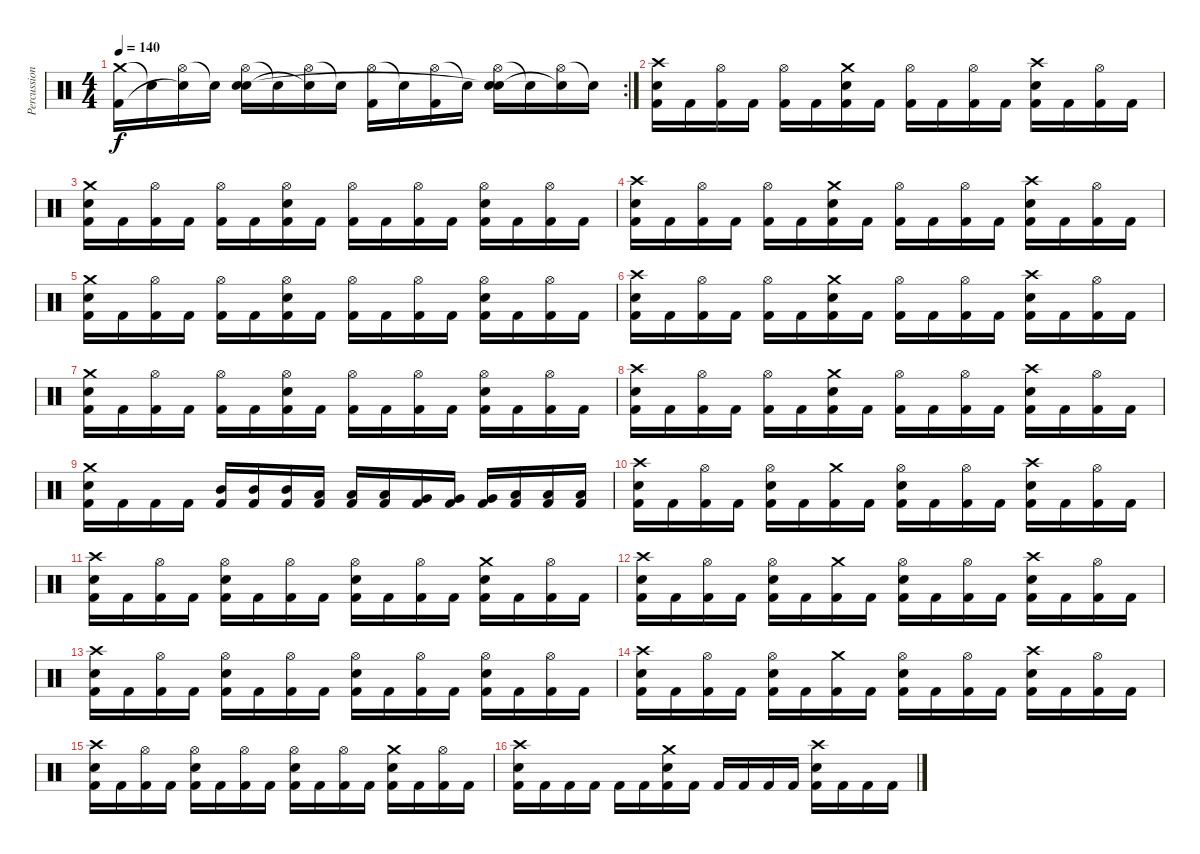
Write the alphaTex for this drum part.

\track ("Percussion" "Percussion") {instrument percussion}
\staff {score}
\articulation defaults
\rc 2
\ts (4 4)
\tempo 140
\clef neutral
\ks c
("Crash medium (hit)" "Kick (hit) 2").16{dy f} "Snare (hit)"{t}.16 ("Hi-Hat (open)" "Snare (hit)"{t}).16 "Snare (hit)"{t}.16 ("Hi-Hat (open)" "Snare (hit) 2" "Snare (hit)"{t}).16 "Snare (hit)"{t}.16 ("Hi-Hat (open)" "Snare (hit)"{t}).16 "Snare (hit)"{t}.16 ("Hi-Hat (open)" "Kick (hit) 2").16 "Snare (hit)"{t}.16 ("Hi-Hat (open)" "Kick (hit) 2").16 "Snare (hit)"{t}.16 ("Hi-Hat (open)" "Snare (hit) 2" "Snare (hit)"{t}).16 "Snare (hit)"{t}.16 ("Hi-Hat (open)" "Snare (hit)"{t}).16 "Snare (hit)"{t}.16 |
("Crash high (hit)" "Snare (hit) 2" "Kick (hit) 2").16 "Kick (hit) 2".16 ("Hi-Hat (open)" "Kick (hit) 2").16 "Kick (hit) 2".16 ("Hi-Hat (open)" "Kick (hit) 2").16 "Kick (hit) 2".16 ("Crash medium (hit)" "Snare (hit) 2" "Kick (hit) 2").16 "Kick (hit) 2".16 ("Hi-Hat (open)" "Kick (hit) 2").16 "Kick (hit) 2".16 ("Hi-Hat (open)" "Kick (hit) 2").16 "Kick (hit) 2".16 ("Crash high (hit)" "Snare (hit) 2" "Kick (hit) 2").16 "Kick (hit) 2".16 ("Hi-Hat (open)" "Kick (hit) 2").16 "Kick (hit) 2".16 |
("Crash medium (hit)" "Snare (hit) 2" "Kick (hit) 2").16 "Kick (hit) 2".16 ("Hi-Hat (open)" "Kick (hit) 2").16 "Kick (hit) 2".16 ("Hi-Hat (open)" "Kick (hit) 2").16 "Kick (hit) 2".16 ("Hi-Hat (open)" "Snare (hit) 2" "Kick (hit) 2").16 "Kick (hit) 2".16 ("Hi-Hat (open)" "Kick (hit) 2").16 "Kick (hit) 2".16 ("Hi-Hat (open)" "Kick (hit) 2").16 "Kick (hit) 2".16 ("Hi-Hat (open)" "Snare (hit) 2" "Kick (hit) 2").16 "Kick (hit) 2".16 ("Hi-Hat (open)" "Kick (hit) 2").16 "Kick (hit) 2".16 |
("Crash high (hit)" "Snare (hit) 2" "Kick (hit) 2").16 "Kick (hit) 2".16 ("Hi-Hat (open)" "Kick (hit) 2").16 "Kick (hit) 2".16 ("Hi-Hat (open)" "Kick (hit) 2").16 "Kick (hit) 2".16 ("Crash medium (hit)" "Snare (hit) 2" "Kick (hit) 2").16 "Kick (hit) 2".16 ("Hi-Hat (open)" "Kick (hit) 2").16 "Kick (hit) 2".16 ("Hi-Hat (open)" "Kick (hit) 2").16 "Kick (hit) 2".16 ("Crash high (hit)" "Snare (hit) 2" "Kick (hit) 2").16 "Kick (hit) 2".16 ("Hi-Hat (open)" "Kick (hit) 2").16 "Kick (hit) 2".16 |
("Crash medium (hit)" "Snare (hit) 2" "Kick (hit) 2").16 "Kick (hit) 2".16 ("Hi-Hat (open)" "Kick (hit) 2").16 "Kick (hit) 2".16 ("Hi-Hat (open)" "Kick (hit) 2").16 "Kick (hit) 2".16 ("Hi-Hat (open)" "Snare (hit) 2" "Kick (hit) 2").16 "Kick (hit) 2".16 ("Hi-Hat (open)" "Kick (hit) 2").16 "Kick (hit) 2".16 ("Hi-Hat (open)" "Kick (hit) 2").16 "Kick (hit) 2".16 ("Hi-Hat (open)" "Snare (hit) 2" "Kick (hit) 2").16 "Kick (hit) 2".16 ("Hi-Hat (open)" "Kick (hit) 2").16 "Kick (hit) 2".16 |
("Crash high (hit)" "Snare (hit) 2" "Kick (hit) 2").16 "Kick (hit) 2".16 ("Hi-Hat (open)" "Kick (hit) 2").16 "Kick (hit) 2".16 ("Hi-Hat (open)" "Kick (hit) 2").16 "Kick (hit) 2".16 ("Crash medium (hit)" "Snare (hit) 2" "Kick (hit) 2").16 "Kick (hit) 2".16 ("Hi-Hat (open)" "Kick (hit) 2").16 "Kick (hit) 2".16 ("Hi-Hat (open)" "Kick (hit) 2").16 "Kick (hit) 2".16 ("Crash high (hit)" "Snare (hit) 2" "Kick (hit) 2").16 "Kick (hit) 2".16 ("Hi-Hat (open)" "Kick (hit) 2").16 "Kick (hit) 2".16 |
("Crash medium (hit)" "Snare (hit) 2" "Kick (hit) 2").16 "Kick (hit) 2".16 ("Hi-Hat (open)" "Kick (hit) 2").16 "Kick (hit) 2".16 ("Hi-Hat (open)" "Kick (hit) 2").16 "Kick (hit) 2".16 ("Hi-Hat (open)" "Snare (hit) 2" "Kick (hit) 2").16 "Kick (hit) 2".16 ("Hi-Hat (open)" "Kick (hit) 2").16 "Kick (hit) 2".16 ("Hi-Hat (open)" "Kick (hit) 2").16 "Kick (hit) 2".16 ("Hi-Hat (open)" "Snare (hit) 2" "Kick (hit) 2").16 "Kick (hit) 2".16 ("Hi-Hat (open)" "Kick (hit) 2").16 "Kick (hit) 2".16 |
("Crash high (hit)" "Snare (hit) 2" "Kick (hit) 2").16 "Kick (hit) 2".16 ("Hi-Hat (open)" "Kick (hit) 2").16 "Kick (hit) 2".16 ("Hi-Hat (open)" "Kick (hit) 2").16 "Kick (hit) 2".16 ("Crash medium (hit)" "Snare (hit) 2" "Kick (hit) 2").16 "Kick (hit) 2".16 ("Hi-Hat (open)" "Kick (hit) 2").16 "Kick (hit) 2".16 ("Hi-Hat (open)" "Kick (hit) 2").16 "Kick (hit) 2".16 ("Crash high (hit)" "Snare (hit) 2" "Kick (hit) 2").16 "Kick (hit) 2".16 ("Hi-Hat (open)" "Kick (hit) 2").16 "Kick (hit) 2".16 |
("Crash medium (hit)" "Snare (hit) 2" "Kick (hit) 2").16 "Kick (hit) 2".16 "Kick (hit) 2".16 "Kick (hit) 2".16 ("Mid Tom (hit)" "Kick (hit) 2").16 ("Mid Tom (hit)" "Kick (hit) 2").16 ("Mid Tom (hit)" "Kick (hit) 2").16 ("Low Tom (hit)" "Kick (hit) 2").16 ("Low Tom (hit)" "Kick (hit) 2").16 ("Low Tom (hit)" "Kick (hit) 2").16 ("Very Low Tom (hit)" "Kick (hit) 2").16 ("Very Low Tom (hit)" "Kick (hit) 2").16 ("Very Low Tom (hit)" "Kick (hit) 2").16 ("Low Floor Tom (hit)" "Kick (hit) 2").16 ("Low Floor Tom (hit)" "Kick (hit) 2").16 ("Low Floor Tom (hit)" "Kick (hit) 2").16 |
("Crash high (hit)" "Snare (hit) 2" "Kick (hit) 2").16 "Kick (hit) 2".16 ("Hi-Hat (open)" "Kick (hit) 2").16 "Kick (hit) 2".16 ("Hi-Hat (open)" "Snare (hit) 2" "Kick (hit) 2").16 "Kick (hit) 2".16 ("Crash medium (hit)" "Kick (hit) 2").16 "Kick (hit) 2".16 ("Hi-Hat (open)" "Snare (hit) 2" "Kick (hit) 2").16 "Kick (hit) 2".16 ("Hi-Hat (open)" "Kick (hit) 2").16 "Kick (hit) 2".16 ("Crash high (hit)" "Snare (hit) 2" "Kick (hit) 2").16 "Kick (hit) 2".16 ("Hi-Hat (open)" "Kick (hit) 2").16 "Kick (hit) 2".16 |
("Crash high (hit)" "Snare (hit) 2" "Kick (hit) 2").16 "Kick (hit) 2".16 ("Hi-Hat (open)" "Kick (hit) 2").16 "Kick (hit) 2".16 ("Hi-Hat (open)" "Snare (hit) 2" "Kick (hit) 2").16 "Kick (hit) 2".16 ("Hi-Hat (open)" "Kick (hit) 2").16 "Kick (hit) 2".16 ("Hi-Hat (open)" "Snare (hit) 2" "Kick (hit) 2").16 "Kick (hit) 2".16 ("Hi-Hat (open)" "Kick (hit) 2").16 "Kick (hit) 2".16 ("Crash medium (hit)" "Snare (hit) 2" "Kick (hit) 2").16 "Kick (hit) 2".16 ("Hi-Hat (open)" "Kick (hit) 2").16 "Kick (hit) 2".16 |
("Crash high (hit)" "Snare (hit) 2" "Kick (hit) 2").16 "Kick (hit) 2".16 ("Hi-Hat (open)" "Kick (hit) 2").16 "Kick (hit) 2".16 ("Hi-Hat (open)" "Snare (hit) 2" "Kick (hit) 2").16 "Kick (hit) 2".16 ("Crash medium (hit)" "Kick (hit) 2").16 "Kick (hit) 2".16 ("Hi-Hat (open)" "Snare (hit) 2" "Kick (hit) 2").16 "Kick (hit) 2".16 ("Hi-Hat (open)" "Kick (hit) 2").16 "Kick (hit) 2".16 ("Crash high (hit)" "Snare (hit) 2" "Kick (hit) 2").16 "Kick (hit) 2".16 ("Hi-Hat (open)" "Kick (hit) 2").16 "Kick (hit) 2".16 |
("Crash high (hit)" "Snare (hit) 2" "Kick (hit) 2").16 "Kick (hit) 2".16 ("Hi-Hat (open)" "Kick (hit) 2").16 "Kick (hit) 2".16 ("Hi-Hat (open)" "Snare (hit) 2" "Kick (hit) 2").16 "Kick (hit) 2".16 ("Hi-Hat (open)" "Kick (hit) 2").16 "Kick (hit) 2".16 ("Hi-Hat (open)" "Snare (hit) 2" "Kick (hit) 2").16 "Kick (hit) 2".16 ("Hi-Hat (open)" "Kick (hit) 2").16 "Kick (hit) 2".16 ("Hi-Hat (open)" "Snare (hit) 2" "Kick (hit) 2").16 "Kick (hit) 2".16 ("Hi-Hat (open)" "Kick (hit) 2").16 "Kick (hit) 2".16 |
("Crash high (hit)" "Snare (hit) 2" "Kick (hit) 2").16 "Kick (hit) 2".16 ("Hi-Hat (open)" "Kick (hit) 2").16 "Kick (hit) 2".16 ("Hi-Hat (open)" "Snare (hit) 2" "Kick (hit) 2").16 "Kick (hit) 2".16 ("Crash medium (hit)" "Kick (hit) 2").16 "Kick (hit) 2".16 ("Hi-Hat (open)" "Snare (hit) 2" "Kick (hit) 2").16 "Kick (hit) 2".16 ("Hi-Hat (open)" "Kick (hit) 2").16 "Kick (hit) 2".16 ("Crash high (hit)" "Snare (hit) 2" "Kick (hit) 2").16 "Kick (hit) 2".16 ("Hi-Hat (open)" "Kick (hit) 2").16 "Kick (hit) 2".16 |
("Crash high (hit)" "Snare (hit) 2" "Kick (hit) 2").16 "Kick (hit) 2".16 ("Hi-Hat (open)" "Kick (hit) 2").16 "Kick (hit) 2".16 ("Hi-Hat (open)" "Snare (hit) 2" "Kick (hit) 2").16 "Kick (hit) 2".16 ("Hi-Hat (open)" "Kick (hit) 2").16 "Kick (hit) 2".16 ("Hi-Hat (open)" "Snare (hit) 2" "Kick (hit) 2").16 "Kick (hit) 2".16 ("Hi-Hat (open)" "Kick (hit) 2").16 "Kick (hit) 2".16 ("Crash medium (hit)" "Snare (hit) 2" "Kick (hit) 2").16 "Kick (hit) 2".16 ("Hi-Hat (open)" "Kick (hit) 2").16 "Kick (hit) 2".16 |
("Crash high (hit)" "Snare (hit) 2" "Kick (hit) 2").16 "Kick (hit) 2".16 "Kick (hit) 2".16 "Kick (hit) 2".16 "Kick (hit) 2".16 "Kick (hit) 2".16 ("Crash medium (hit)" "Snare (hit) 2" "Kick (hit) 2").16 "Kick (hit) 2".16 "Kick (hit) 2".16 "Kick (hit) 2".16 "Kick (hit) 2".16 "Kick (hit) 2".16 ("Crash high (hit)" "Snare (hit) 2" "Kick (hit) 2").16 "Kick (hit) 2".16 "Kick (hit) 2".16 "Kick (hit) 2".16
